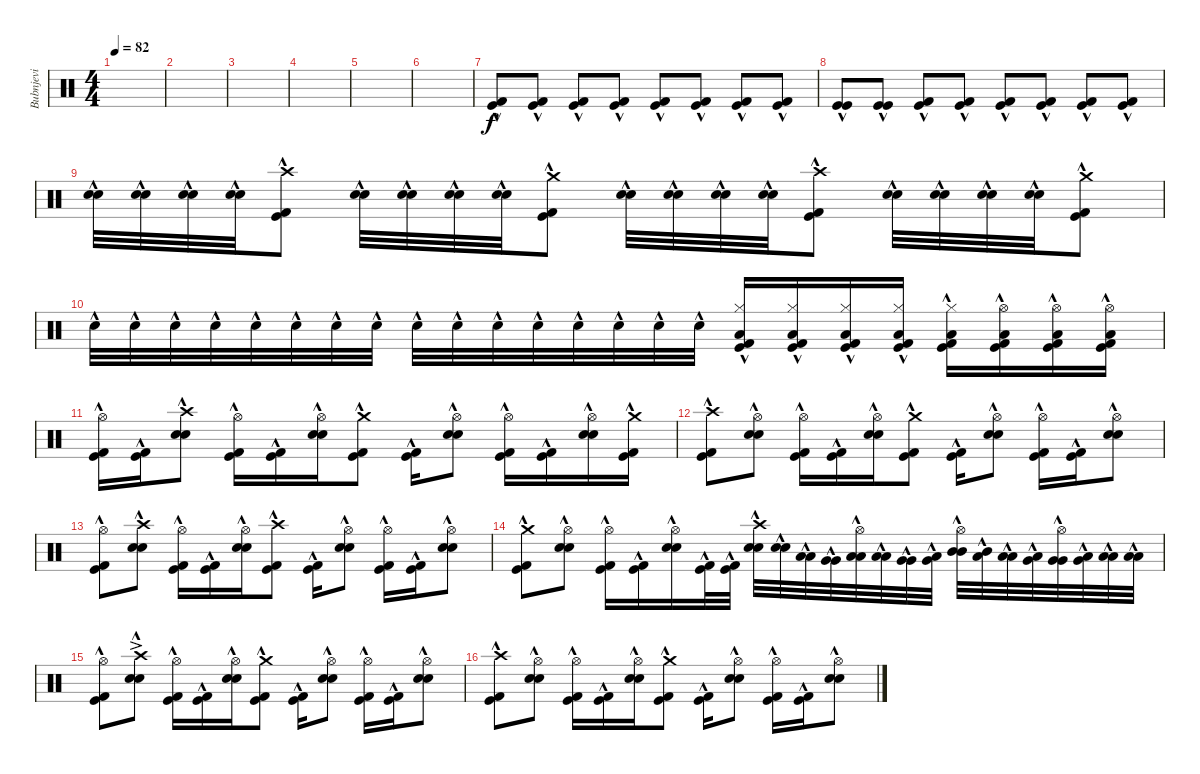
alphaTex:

\track ("Bubnjevi" "Bubnjevi") {instrument percussion}
\staff {score}
\articulation defaults
\ts (4 4)
\tempo 82
\clef neutral
\ks c
|
|
|
|
|
|
("Kick (hit) 2"{hac} "Kick (hit)"{hac}).8 ("Kick (hit) 2"{hac} "Kick (hit)"{hac}).8 ("Kick (hit) 2"{hac} "Kick (hit)"{hac}).8 ("Kick (hit) 2"{hac} "Kick (hit)"{hac}).8 ("Kick (hit) 2"{hac} "Kick (hit)"{hac}).8 ("Kick (hit) 2"{hac} "Kick (hit)"{hac}).8 ("Kick (hit) 2"{hac} "Kick (hit)"{hac}).8 ("Kick (hit) 2"{hac} "Kick (hit)"{hac}).8 |
("Kick (hit)"{hac} "Kick (hit)"{hac}).8 ("Kick (hit)"{hac} "Kick (hit)"{hac}).8 ("Kick (hit) 2"{hac} "Kick (hit)"{hac}).8 ("Kick (hit) 2"{hac} "Kick (hit)"{hac}).8 ("Kick (hit) 2"{hac} "Kick (hit)"{hac}).8 ("Kick (hit) 2"{hac} "Kick (hit)"{hac}).8 ("Kick (hit) 2"{hac} "Kick (hit)"{hac}).8 ("Kick (hit) 2"{hac} "Kick (hit)"{hac}).8 |
("Snare (hit) 2"{hac} "Electric Snare (hit)"{hac}).32 ("Snare (hit) 2"{hac} "Electric Snare (hit)"{hac}).32 ("Snare (hit) 2"{hac} "Electric Snare (hit)"{hac}).32 ("Snare (hit) 2"{hac} "Electric Snare (hit)"{hac}).32 ("Crash high (hit)"{hac} "Kick (hit) 2"{hac} "Kick (hit)"{hac}).8 ("Snare (hit) 2"{hac} "Electric Snare (hit)"{hac}).32 ("Snare (hit) 2"{hac} "Electric Snare (hit)"{hac}).32 ("Snare (hit) 2"{hac} "Electric Snare (hit)"{hac}).32 ("Snare (hit) 2"{hac} "Electric Snare (hit)"{hac}).32 ("Crash medium (hit)"{hac} "Kick (hit) 2"{hac} "Kick (hit)"{hac}).8 ("Snare (hit) 2"{hac} "Electric Snare (hit)"{hac}).32 ("Snare (hit) 2"{hac} "Electric Snare (hit)"{hac}).32 ("Snare (hit) 2"{hac} "Electric Snare (hit)"{hac}).32 ("Snare (hit) 2"{hac} "Electric Snare (hit)"{hac}).32 ("Crash high (hit)"{hac} "Kick (hit) 2"{hac} "Kick (hit)"{hac}).8 ("Snare (hit) 2"{hac} "Electric Snare (hit)"{hac}).32 ("Snare (hit) 2"{hac} "Electric Snare (hit)"{hac}).32 ("Snare (hit) 2"{hac} "Electric Snare (hit)"{hac}).32 ("Electric Snare (hit)"{hac} "Electric Snare (hit)"{hac}).32 ("Crash medium (hit)"{hac} "Kick (hit) 2"{hac} "Kick (hit)"{hac}).8 |
"Electric Snare (hit)"{hac}.32 "Snare (hit) 2"{hac}.32 "Electric Snare (hit)"{hac}.32 "Snare (hit) 2"{hac}.32 "Electric Snare (hit)"{hac}.32 "Snare (hit) 2"{hac}.32 "Electric Snare (hit)"{hac}.32 "Snare (hit) 2"{hac}.32 "Electric Snare (hit)"{hac}.32 "Snare (hit) 2"{hac}.32 "Electric Snare (hit)"{hac}.32 "Snare (hit) 2"{hac}.32 "Electric Snare (hit)"{hac}.32 "Snare (hit) 2"{hac}.32 "Electric Snare (hit)"{hac}.32 "Snare (hit) 2"{hac}.32 ("Hi-Hat (closed)"{hac} "Low Floor Tom (hit)"{hac} "Kick (hit) 2"{hac} "Kick (hit)"{hac}).16 ("Hi-Hat (closed)"{hac} "Low Floor Tom (hit)"{hac} "Kick (hit)"{hac} "Kick (hit) 2"{hac}).16 ("Hi-Hat (closed)"{hac} "Low Floor Tom (hit)"{hac} "Kick (hit) 2"{hac} "Kick (hit)"{hac}).16 ("Hi-Hat (closed)"{hac} "Low Floor Tom (hit)"{hac} "Kick (hit) 2"{hac} "Kick (hit)"{hac}).16 ("Hi-Hat (closed)"{hac} "Low Floor Tom (hit)"{hac} "Kick (hit) 2"{hac} "Kick (hit)"{hac}).16 ("Hi-Hat (open)"{hac} "Low Floor Tom (hit)"{hac} "Kick (hit) 2"{hac} "Kick (hit)"{hac}).16 ("Hi-Hat (open)"{hac} "Low Floor Tom (hit)"{hac} "Kick (hit) 2"{hac} "Kick (hit)"{hac}).16 ("Hi-Hat (open)"{hac} "Low Floor Tom (hit)"{hac} "Kick (hit) 2"{hac} "Kick (hit)"{hac}).16 |
("Hi-Hat (open)"{hac} "Kick (hit) 2"{hac} "Kick (hit)"{hac}).16 ("Kick (hit) 2"{hac} "Kick (hit)"{hac}).16 ("Crash high (hit)"{hac} "Snare (hit) 2"{hac} "Electric Snare (hit)"{hac}).8 ("Hi-Hat (open)"{hac} "Kick (hit) 2"{hac} "Kick (hit)"{hac}).16 ("Kick (hit) 2"{hac} "Kick (hit)"{hac}).16 ("Hi-Hat (open)"{hac} "Snare (hit) 2"{hac} "Electric Snare (hit)"{hac}).16 ("Crash medium (hit)"{hac} "Kick (hit) 2"{hac} "Kick (hit)"{hac}).8 ("Kick (hit) 2"{hac} "Kick (hit)"{hac}).16 ("Hi-Hat (open)"{hac} "Snare (hit) 2"{hac} "Electric Snare (hit)"{hac}).8 ("Hi-Hat (open)"{hac} "Kick (hit) 2"{hac} "Kick (hit)"{hac}).16 ("Kick (hit) 2"{hac} "Kick (hit)"{hac}).16 ("Hi-Hat (open)"{hac} "Snare (hit) 2"{hac} "Electric Snare (hit)"{hac}).16 ("Crash medium (hit)"{hac} "Kick (hit) 2"{hac} "Kick (hit)"{hac}).16 |
("Crash high (hit)"{hac} "Kick (hit) 2"{hac} "Kick (hit)"{hac}).8 ("Hi-Hat (open)"{hac} "Snare (hit) 2"{hac} "Electric Snare (hit)"{hac}).8 ("Hi-Hat (open)"{hac} "Kick (hit) 2"{hac} "Kick (hit)"{hac}).16 ("Kick (hit) 2"{hac} "Kick (hit)"{hac}).16 ("Hi-Hat (open)"{hac} "Snare (hit) 2"{hac} "Electric Snare (hit)"{hac}).16 ("Crash medium (hit)"{hac} "Kick (hit) 2"{hac} "Kick (hit)"{hac}).8 ("Kick (hit) 2"{hac} "Kick (hit)"{hac}).16 ("Hi-Hat (open)"{hac} "Snare (hit) 2"{hac} "Electric Snare (hit)"{hac}).8 ("Hi-Hat (open)"{hac} "Kick (hit) 2"{hac} "Kick (hit)"{hac}).16 ("Kick (hit) 2"{hac} "Kick (hit)"{hac}).16 ("Hi-Hat (open)"{hac} "Snare (hit) 2"{hac} "Electric Snare (hit)"{hac}).8 |
("Hi-Hat (open)"{hac} "Kick (hit) 2"{hac} "Kick (hit)"{hac}).8 ("Crash high (hit)"{hac} "Snare (hit) 2"{hac} "Electric Snare (hit)"{hac}).8 ("Hi-Hat (open)"{hac} "Kick (hit) 2"{hac} "Kick (hit)"{hac}).16 ("Kick (hit) 2"{hac} "Kick (hit)"{hac}).16 ("Hi-Hat (open)"{hac} "Snare (hit) 2"{hac} "Electric Snare (hit)"{hac}).16 ("Crash high (hit)"{hac} "Kick (hit) 2"{hac} "Kick (hit)"{hac}).8 ("Kick (hit) 2"{hac} "Kick (hit)"{hac}).16 ("Hi-Hat (open)"{hac} "Snare (hit) 2"{hac} "Electric Snare (hit)"{hac}).8 ("Hi-Hat (open)"{hac} "Kick (hit) 2"{hac} "Kick (hit)"{hac}).16 ("Kick (hit) 2"{hac} "Kick (hit)"{hac}).16 ("Hi-Hat (open)"{hac} "Snare (hit) 2"{hac} "Electric Snare (hit)"{hac}).8 |
("Crash medium (hit)" "Kick (hit) 2"{hac} "Kick (hit)"{hac}).8 ("Hi-Hat (open)"{hac} "Snare (hit) 2"{hac} "Electric Snare (hit)"{hac}).8 ("Hi-Hat (open)"{hac} "Kick (hit) 2"{hac} "Kick (hit)"{hac}).16 ("Kick (hit) 2"{hac} "Kick (hit)"{hac}).16 ("Hi-Hat (open)"{hac} "Snare (hit) 2"{hac} "Electric Snare (hit)"{hac}).16 ("Kick (hit) 2"{hac} "Kick (hit)"{hac}).32 ("Kick (hit) 2"{hac} "Kick (hit)"{hac}).32 ("Crash high (hit)" "Snare (hit) 2"{hac} "Electric Snare (hit)"{hac}).32 ("Electric Snare (hit)"{hac} "Electric Snare (hit)"{hac}).32 ("Low Tom (hit)"{hac} "Low Tom (hit)"{hac}).32 ("Very Low Tom (hit)"{hac} "Very Low Tom (hit)"{hac}).32 ("Hi-Hat (open)"{hac} "Low Tom (hit)"{hac} "Low Tom (hit)"{hac}).32 ("Low Tom (hit)"{hac} "Low Tom (hit)"{hac}).32 ("Very Low Tom (hit)"{hac} "Very Low Tom (hit)"{hac}).32 ("Very Low Tom (hit)"{hac} "Low Floor Tom (hit)"{hac}).32 ("Hi-Hat (open)"{hac} "Mid Tom (hit)"{hac} "Mid Tom (hit)"{hac}).32 ("Mid Tom (hit)"{hac} "Low Tom (hit)"{hac}).32 ("Low Tom (hit)"{hac} "Low Tom (hit)"{hac}).32 ("Low Tom (hit)"{hac} "Very Low Tom (hit)"{hac}).32 ("Hi-Hat (open)"{hac} "Very Low Tom (hit)"{hac} "Very Low Tom (hit)"{hac}).32 ("Low Floor Tom (hit)"{hac} "Very Low Tom (hit)"{hac}).32 ("Low Floor Tom (hit)"{hac} "Low Floor Tom (hit)"{hac}).32 ("Low Floor Tom (hit)"{hac} "Low Floor Tom (hit)"{hac}).32 |
("Hi-Hat (open)"{hac} "Kick (hit) 2"{hac} "Kick (hit)"{hac}).8 ("Crash high (hit)"{ac} "Snare (hit) 2"{hac} "Electric Snare (hit)"{hac}).8 ("Hi-Hat (open)"{hac} "Kick (hit) 2"{hac} "Kick (hit)"{hac}).16 ("Kick (hit) 2"{hac} "Kick (hit)"{hac}).16 ("Hi-Hat (open)"{hac} "Snare (hit) 2"{hac} "Electric Snare (hit)"{hac}).16 ("Crash medium (hit)" "Kick (hit) 2"{hac} "Kick (hit)"{hac}).8 ("Kick (hit) 2"{hac} "Kick (hit)"{hac}).16 ("Hi-Hat (open)"{hac} "Snare (hit) 2"{hac} "Electric Snare (hit)"{hac}).8 ("Hi-Hat (open)"{hac} "Kick (hit) 2"{hac} "Kick (hit)"{hac}).16 ("Kick (hit) 2"{hac} "Kick (hit)"{hac}).16 ("Hi-Hat (open)"{hac} "Snare (hit) 2"{hac} "Electric Snare (hit)"{hac}).8 |
("Crash high (hit)" "Kick (hit) 2"{hac} "Kick (hit)"{hac}).8 ("Hi-Hat (open)"{hac} "Snare (hit) 2"{hac} "Electric Snare (hit)"{hac}).8 ("Hi-Hat (open)"{hac} "Kick (hit) 2"{hac} "Kick (hit)"{hac}).16 ("Kick (hit) 2"{hac} "Kick (hit)"{hac}).16 ("Hi-Hat (open)"{hac} "Snare (hit) 2"{hac} "Electric Snare (hit)"{hac}).16 ("Crash medium (hit)" "Kick (hit) 2"{hac} "Kick (hit)"{hac}).8 ("Kick (hit) 2"{hac} "Kick (hit)"{hac}).16 ("Hi-Hat (open)"{hac} "Snare (hit) 2"{hac} "Electric Snare (hit)"{hac}).8 ("Hi-Hat (open)"{hac} "Kick (hit) 2"{hac} "Kick (hit)"{hac}).16 ("Kick (hit) 2"{hac} "Kick (hit)"{hac}).16 ("Hi-Hat (open)"{hac} "Snare (hit) 2"{hac} "Electric Snare (hit)"{hac}).8
